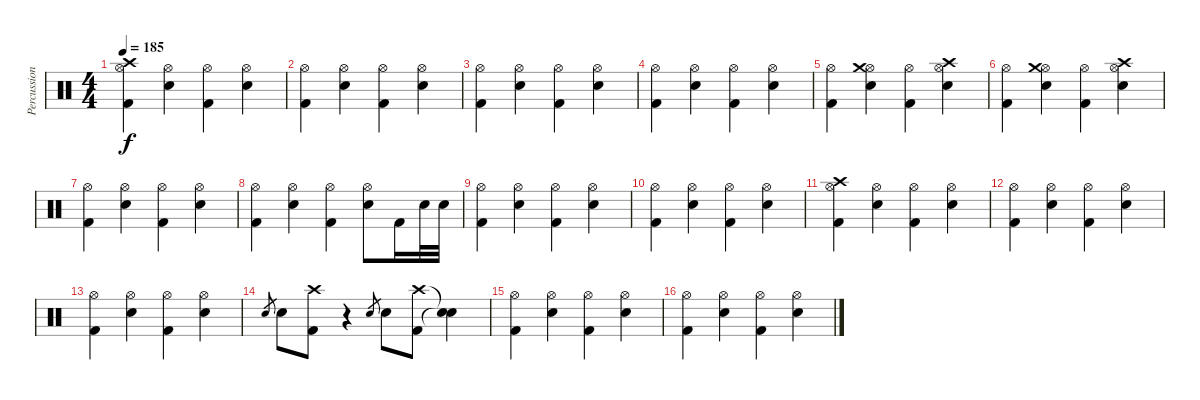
\track ("Percussion" "Percussion") {instrument percussion}
\staff {score}
\articulation defaults
\ts (4 4)
\tempo 185
\clef neutral
\ks c
("Hi-Hat (open)" "Crash high (hit)" "Kick (hit) 2").4{dy f} ("Hi-Hat (open)" "Electric Snare (hit)").4 ("Hi-Hat (open)" "Kick (hit) 2").4 ("Hi-Hat (open)" "Electric Snare (hit)").4 |
("Hi-Hat (open)" "Kick (hit) 2").4 ("Hi-Hat (open)" "Electric Snare (hit)").4 ("Hi-Hat (open)" "Kick (hit) 2").4 ("Hi-Hat (open)" "Electric Snare (hit)").4 |
("Hi-Hat (open)" "Kick (hit) 2").4 ("Hi-Hat (open)" "Electric Snare (hit)").4 ("Hi-Hat (open)" "Kick (hit) 2").4 ("Hi-Hat (open)" "Electric Snare (hit)").4 |
("Hi-Hat (open)" "Kick (hit) 2").4 ("Hi-Hat (open)" "Electric Snare (hit)").4 ("Hi-Hat (open)" "Kick (hit) 2").4 ("Hi-Hat (open)" "Electric Snare (hit)").4 |
("Hi-Hat (open)" "Kick (hit) 2").4 ("Hi-Hat (open)" "Crash medium (hit)" "Electric Snare (hit)").4 ("Hi-Hat (open)" "Kick (hit) 2").4 ("Hi-Hat (open)" "Crash high (hit)" "Electric Snare (hit)").4 |
("Hi-Hat (open)" "Kick (hit) 2").4 ("Hi-Hat (open)" "Crash medium (hit)" "Electric Snare (hit)").4 ("Hi-Hat (open)" "Kick (hit) 2").4 ("Hi-Hat (open)" "Crash high (hit)" "Electric Snare (hit)").4 |
("Hi-Hat (open)" "Kick (hit) 2").4 ("Hi-Hat (open)" "Electric Snare (hit)").4 ("Hi-Hat (open)" "Kick (hit) 2").4 ("Hi-Hat (open)" "Electric Snare (hit)").4 |
("Hi-Hat (open)" "Kick (hit) 2").4 ("Hi-Hat (open)" "Electric Snare (hit)").4 ("Hi-Hat (open)" "Kick (hit) 2").4 ("Hi-Hat (open)" "Electric Snare (hit)").8 "Kick (hit) 2".16 "Electric Snare (hit)".32 "Electric Snare (hit)".32 |
("Hi-Hat (open)" "Kick (hit) 2").4 ("Hi-Hat (open)" "Electric Snare (hit)").4 ("Hi-Hat (open)" "Kick (hit) 2").4 ("Hi-Hat (open)" "Electric Snare (hit)").4 |
("Hi-Hat (open)" "Kick (hit) 2").4 ("Hi-Hat (open)" "Electric Snare (hit)").4 ("Hi-Hat (open)" "Kick (hit) 2").4 ("Hi-Hat (open)" "Electric Snare (hit)").4 |
("Hi-Hat (open)" "Crash high (hit)" "Kick (hit) 2").4 ("Hi-Hat (open)" "Electric Snare (hit)").4 ("Hi-Hat (open)" "Kick (hit) 2").4 ("Hi-Hat (open)" "Electric Snare (hit)").4 |
("Hi-Hat (open)" "Kick (hit) 2").4 ("Hi-Hat (open)" "Electric Snare (hit)").4 ("Hi-Hat (open)" "Kick (hit) 2").4 ("Hi-Hat (open)" "Electric Snare (hit)").4 |
("Hi-Hat (open)" "Kick (hit) 2").4 ("Hi-Hat (open)" "Electric Snare (hit)").4 ("Hi-Hat (open)" "Kick (hit) 2").4 ("Hi-Hat (open)" "Electric Snare (hit)").4 |
"Electric Snare (hit)".8{gr} "Electric Snare (hit)".8 ("Crash high (hit)" "Kick (hit) 2").8 r.4 "Electric Snare (hit)".8{gr} "Electric Snare (hit)".8 ("Crash high (hit)" "Kick (hit) 2").8 ("Snare (hit)"{t} "Snare (hit)"{t}).4 |
("Hi-Hat (open)" "Kick (hit) 2").4 ("Hi-Hat (open)" "Electric Snare (hit)").4 ("Hi-Hat (open)" "Kick (hit) 2").4 ("Hi-Hat (open)" "Electric Snare (hit)").4 |
("Hi-Hat (open)" "Kick (hit) 2").4 ("Hi-Hat (open)" "Electric Snare (hit)").4 ("Hi-Hat (open)" "Kick (hit) 2").4 ("Hi-Hat (open)" "Electric Snare (hit)").4
